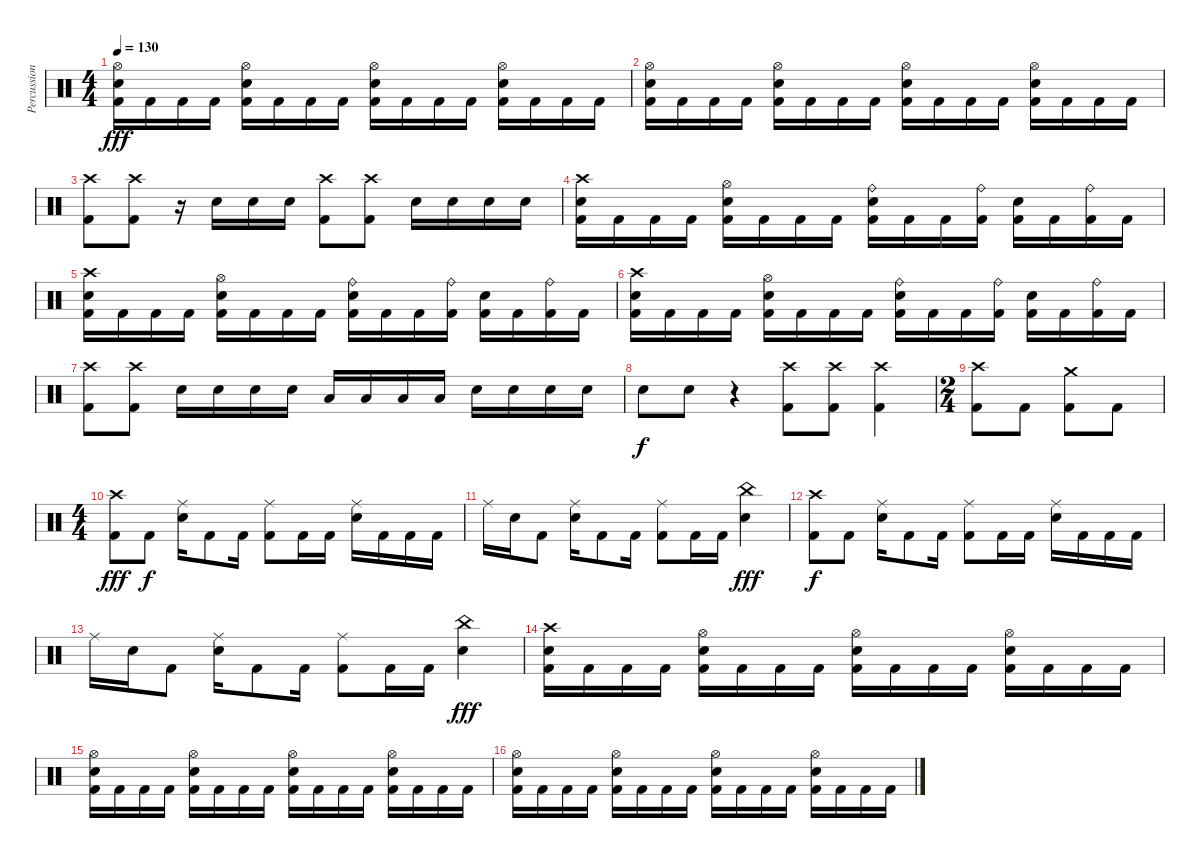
\track ("Percussion" "Percussion") {instrument percussion}
\staff {score}
\articulation defaults
\ts (4 4)
\tempo 130
\clef neutral
\ks c
("Kick (hit) 2" "Snare (hit) 2" "Hi-Hat (open)").16{dy fff} "Kick (hit) 2".16 "Kick (hit) 2".16 "Kick (hit) 2".16 ("Kick (hit) 2" "Snare (hit) 2" "Hi-Hat (open)").16 "Kick (hit) 2".16 "Kick (hit) 2".16 "Kick (hit) 2".16 ("Kick (hit) 2" "Snare (hit) 2" "Hi-Hat (open)").16 "Kick (hit) 2".16 "Kick (hit) 2".16 "Kick (hit) 2".16 ("Kick (hit) 2" "Snare (hit) 2" "Hi-Hat (open)").16 "Kick (hit) 2".16 "Kick (hit) 2".16 "Kick (hit) 2".16 |
("Kick (hit) 2" "Snare (hit) 2" "Hi-Hat (open)").16 "Kick (hit) 2".16 "Kick (hit) 2".16 "Kick (hit) 2".16 ("Kick (hit) 2" "Snare (hit) 2" "Hi-Hat (open)").16 "Kick (hit) 2".16 "Kick (hit) 2".16 "Kick (hit) 2".16 ("Kick (hit) 2" "Snare (hit) 2" "Hi-Hat (open)").16 "Kick (hit) 2".16 "Kick (hit) 2".16 "Kick (hit) 2".16 ("Kick (hit) 2" "Snare (hit) 2" "Hi-Hat (open)").16 "Kick (hit) 2".16 "Kick (hit) 2".16 "Kick (hit) 2".16 |
("Kick (hit) 2" "Crash high (hit)").8 ("Kick (hit) 2" "Crash high (hit)").8 r.16 "Snare (hit) 2".16 "Snare (hit) 2".16 "Snare (hit) 2".16 ("Kick (hit) 2" "Crash high (hit)").8 ("Kick (hit) 2" "Crash high (hit)").8 "Snare (hit) 2".16 "Snare (hit) 2".16 "Snare (hit) 2".16 "Snare (hit) 2".16 |
("Kick (hit) 2" "Snare (hit) 2" "Crash high (hit)").16 "Kick (hit) 2".16 "Kick (hit) 2".16 "Kick (hit) 2".16 ("Kick (hit) 2" "Snare (hit) 2" "Hi-Hat (open)").16 "Kick (hit) 2".16 "Kick (hit) 2".16 "Kick (hit) 2".16 ("Kick (hit) 2" "Snare (hit) 2" "Ride (bell)").16 "Kick (hit) 2".16 "Kick (hit) 2".16 ("Kick (hit) 2" "Ride (bell)").16 ("Kick (hit) 2" "Snare (hit) 2").16 "Kick (hit) 2".16 ("Kick (hit) 2" "Ride (bell)").16 "Kick (hit) 2".16 |
("Kick (hit) 2" "Snare (hit) 2" "Crash high (hit)").16 "Kick (hit) 2".16 "Kick (hit) 2".16 "Kick (hit) 2".16 ("Kick (hit) 2" "Snare (hit) 2" "Hi-Hat (open)").16 "Kick (hit) 2".16 "Kick (hit) 2".16 "Kick (hit) 2".16 ("Kick (hit) 2" "Snare (hit) 2" "Ride (bell)").16 "Kick (hit) 2".16 "Kick (hit) 2".16 ("Kick (hit) 2" "Ride (bell)").16 ("Kick (hit) 2" "Snare (hit) 2").16 "Kick (hit) 2".16 ("Kick (hit) 2" "Ride (bell)").16 "Kick (hit) 2".16 |
("Kick (hit) 2" "Snare (hit) 2" "Crash high (hit)").16 "Kick (hit) 2".16 "Kick (hit) 2".16 "Kick (hit) 2".16 ("Kick (hit) 2" "Snare (hit) 2" "Hi-Hat (open)").16 "Kick (hit) 2".16 "Kick (hit) 2".16 "Kick (hit) 2".16 ("Kick (hit) 2" "Snare (hit) 2" "Ride (bell)").16 "Kick (hit) 2".16 "Kick (hit) 2".16 ("Kick (hit) 2" "Ride (bell)").16 ("Kick (hit) 2" "Snare (hit) 2").16 "Kick (hit) 2".16 ("Kick (hit) 2" "Ride (bell)").16 "Kick (hit) 2".16 |
("Kick (hit) 2" "Crash high (hit)").8 ("Kick (hit) 2" "Crash high (hit)").8 "Snare (hit) 2".16 "Snare (hit) 2".16 "Snare (hit) 2".16 "Snare (hit) 2".16 "Low Tom (hit)".16 "Low Tom (hit)".16 "Low Tom (hit)".16 "Low Tom (hit)".16 "Snare (hit) 2".16 "Snare (hit) 2".16 "Snare (hit) 2".16 "Snare (hit) 2".16 |
"Snare (hit) 2".8{dy f} "Snare (hit) 2".8 r.4 ("Kick (hit) 2" "Crash high (hit)").8 ("Kick (hit) 2" "Crash high (hit)").8 ("Kick (hit) 2" "Crash high (hit)").4 |
\ts (2 4)
("Kick (hit) 2" "Crash high (hit)").8 "Kick (hit) 2".8 ("Kick (hit) 2" "Crash medium (hit)").8 "Kick (hit) 2".8 |
\ts (4 4)
("Crash high (hit)" "Kick (hit) 2").8{dy fff} "Kick (hit) 2".8{dy f} ("Ride (middle)" "Snare (hit) 2").16 "Kick (hit) 2".8 "Kick (hit) 2".16 ("Ride (middle)" "Kick (hit) 2").8 "Kick (hit) 2".16 "Kick (hit) 2".16 ("Ride (middle)" "Snare (hit) 2").16 "Kick (hit) 2".16 "Kick (hit) 2".16 "Kick (hit) 2".16 |
"Ride (middle)".16 "Snare (hit) 2".16 "Kick (hit) 2".8 ("Snare (hit) 2" "Ride (middle)").16 "Kick (hit) 2".8 "Kick (hit) 2".16 ("Kick (hit) 2" "Ride (middle)").8 "Kick (hit) 2".16 "Kick (hit) 2".16 ("Snare (hit) 2" "China (hit)").4{dy fff} |
("Crash high (hit)" "Kick (hit) 2").8{dy f} "Kick (hit) 2".8 ("Ride (middle)" "Snare (hit) 2").16 "Kick (hit) 2".8 "Kick (hit) 2".16 ("Ride (middle)" "Kick (hit) 2").8 "Kick (hit) 2".16 "Kick (hit) 2".16 ("Ride (middle)" "Snare (hit) 2").16 "Kick (hit) 2".16 "Kick (hit) 2".16 "Kick (hit) 2".16 |
"Ride (middle)".16 "Snare (hit) 2".16 "Kick (hit) 2".8 ("Snare (hit) 2" "Ride (middle)").16 "Kick (hit) 2".8 "Kick (hit) 2".16 ("Kick (hit) 2" "Ride (middle)").8 "Kick (hit) 2".16 "Kick (hit) 2".16 ("Snare (hit) 2" "China (hit)").4{dy fff} |
("Kick (hit) 2" "Snare (hit) 2" "Crash high (hit)").16 "Kick (hit) 2".16 "Kick (hit) 2".16 "Kick (hit) 2".16 ("Kick (hit) 2" "Snare (hit) 2" "Hi-Hat (open)").16 "Kick (hit) 2".16 "Kick (hit) 2".16 "Kick (hit) 2".16 ("Kick (hit) 2" "Snare (hit) 2" "Hi-Hat (open)").16 "Kick (hit) 2".16 "Kick (hit) 2".16 "Kick (hit) 2".16 ("Kick (hit) 2" "Snare (hit) 2" "Hi-Hat (open)").16 "Kick (hit) 2".16 "Kick (hit) 2".16 "Kick (hit) 2".16 |
("Kick (hit) 2" "Snare (hit) 2" "Hi-Hat (open)").16 "Kick (hit) 2".16 "Kick (hit) 2".16 "Kick (hit) 2".16 ("Kick (hit) 2" "Snare (hit) 2" "Hi-Hat (open)").16 "Kick (hit) 2".16 "Kick (hit) 2".16 "Kick (hit) 2".16 ("Kick (hit) 2" "Snare (hit) 2" "Hi-Hat (open)").16 "Kick (hit) 2".16 "Kick (hit) 2".16 "Kick (hit) 2".16 ("Kick (hit) 2" "Snare (hit) 2" "Hi-Hat (open)").16 "Kick (hit) 2".16 "Kick (hit) 2".16 "Kick (hit) 2".16 |
("Kick (hit) 2" "Snare (hit) 2" "Hi-Hat (open)").16 "Kick (hit) 2".16 "Kick (hit) 2".16 "Kick (hit) 2".16 ("Kick (hit) 2" "Snare (hit) 2" "Hi-Hat (open)").16 "Kick (hit) 2".16 "Kick (hit) 2".16 "Kick (hit) 2".16 ("Kick (hit) 2" "Snare (hit) 2" "Hi-Hat (open)").16 "Kick (hit) 2".16 "Kick (hit) 2".16 "Kick (hit) 2".16 ("Kick (hit) 2" "Snare (hit) 2" "Hi-Hat (open)").16 "Kick (hit) 2".16 "Kick (hit) 2".16 "Kick (hit) 2".16
